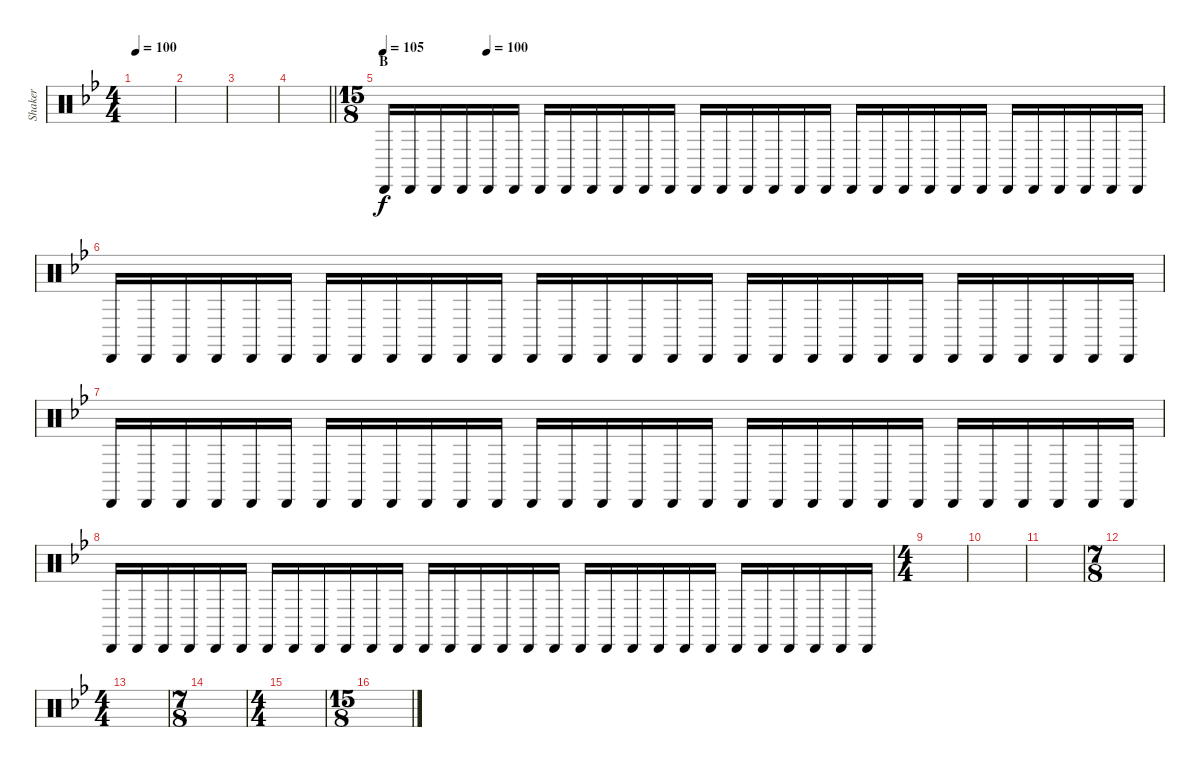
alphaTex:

\track ("Shaker" "Shaker") {instrument percussion}
\staff {score}
\articulation defaults
\ts (4 4)
\tempo 100
\clef neutral
\ks gminor
|
|
|
\barLineRight lightlight
|
\ts (15 8)
\section ("" "B")
\tempo 105
\tempo (100 0.13333333333333333)
"Cabasa (hit)".16 "Cabasa (hit)".16 "Cabasa (hit)".16 "Cabasa (hit)".16 "Cabasa (hit)".16 "Cabasa (hit)".16 "Cabasa (hit)".16 "Cabasa (hit)".16 "Cabasa (hit)".16 "Cabasa (hit)".16 "Cabasa (hit)".16 "Cabasa (hit)".16 "Cabasa (hit)".16 "Cabasa (hit)".16 "Cabasa (hit)".16 "Cabasa (hit)".16 "Cabasa (hit)".16 "Cabasa (hit)".16 "Cabasa (hit)".16 "Cabasa (hit)".16 "Cabasa (hit)".16 "Cabasa (hit)".16 "Cabasa (hit)".16 "Cabasa (hit)".16 "Cabasa (hit)".16 "Cabasa (hit)".16 "Cabasa (hit)".16 "Cabasa (hit)".16 "Cabasa (hit)".16 "Cabasa (hit)".16 |
"Cabasa (hit)".16 "Cabasa (hit)".16 "Cabasa (hit)".16 "Cabasa (hit)".16 "Cabasa (hit)".16 "Cabasa (hit)".16 "Cabasa (hit)".16 "Cabasa (hit)".16 "Cabasa (hit)".16 "Cabasa (hit)".16 "Cabasa (hit)".16 "Cabasa (hit)".16 "Cabasa (hit)".16 "Cabasa (hit)".16 "Cabasa (hit)".16 "Cabasa (hit)".16 "Cabasa (hit)".16 "Cabasa (hit)".16 "Cabasa (hit)".16 "Cabasa (hit)".16 "Cabasa (hit)".16 "Cabasa (hit)".16 "Cabasa (hit)".16 "Cabasa (hit)".16 "Cabasa (hit)".16 "Cabasa (hit)".16 "Cabasa (hit)".16 "Cabasa (hit)".16 "Cabasa (hit)".16 "Cabasa (hit)".16 |
"Cabasa (hit)".16 "Cabasa (hit)".16 "Cabasa (hit)".16 "Cabasa (hit)".16 "Cabasa (hit)".16 "Cabasa (hit)".16 "Cabasa (hit)".16 "Cabasa (hit)".16 "Cabasa (hit)".16 "Cabasa (hit)".16 "Cabasa (hit)".16 "Cabasa (hit)".16 "Cabasa (hit)".16 "Cabasa (hit)".16 "Cabasa (hit)".16 "Cabasa (hit)".16 "Cabasa (hit)".16 "Cabasa (hit)".16 "Cabasa (hit)".16 "Cabasa (hit)".16 "Cabasa (hit)".16 "Cabasa (hit)".16 "Cabasa (hit)".16 "Cabasa (hit)".16 "Cabasa (hit)".16 "Cabasa (hit)".16 "Cabasa (hit)".16 "Cabasa (hit)".16 "Cabasa (hit)".16 "Cabasa (hit)".16 |
"Cabasa (hit)".16 "Cabasa (hit)".16 "Cabasa (hit)".16 "Cabasa (hit)".16 "Cabasa (hit)".16 "Cabasa (hit)".16 "Cabasa (hit)".16 "Cabasa (hit)".16 "Cabasa (hit)".16 "Cabasa (hit)".16 "Cabasa (hit)".16 "Cabasa (hit)".16 "Cabasa (hit)".16 "Cabasa (hit)".16 "Cabasa (hit)".16 "Cabasa (hit)".16 "Cabasa (hit)".16 "Cabasa (hit)".16 "Cabasa (hit)".16 "Cabasa (hit)".16 "Cabasa (hit)".16 "Cabasa (hit)".16 "Cabasa (hit)".16 "Cabasa (hit)".16 "Cabasa (hit)".16 "Cabasa (hit)".16 "Cabasa (hit)".16 "Cabasa (hit)".16 "Cabasa (hit)".16 "Cabasa (hit)".16 |
\ts (4 4)
|
|
|
\ts (7 8)
|
\ts (4 4)
|
\ts (7 8)
|
\ts (4 4)
|
\ts (15 8)
